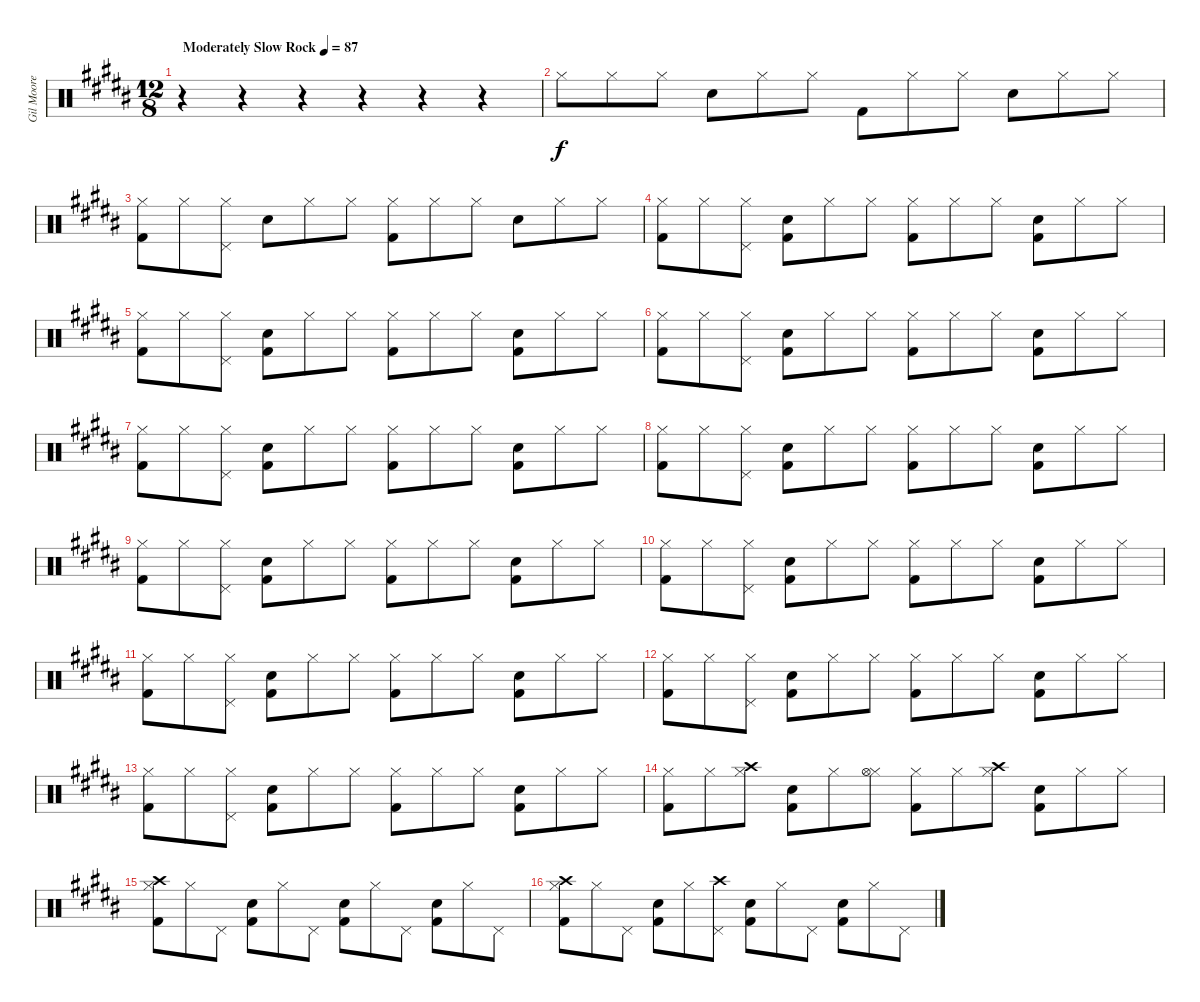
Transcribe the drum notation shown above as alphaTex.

\track ("Gil Moore" "Gil Moore") {instrument percussion}
\staff {score}
\articulation defaults
\ts (12 8)
\tempo (87 "Moderately Slow Rock")
\clef neutral
\ks b
r.4{dy f} r.4 r.4 r.4 r.4 r.4 |
"Hi-Hat (closed)".8{volume 13} "Hi-Hat (closed)".8 "Hi-Hat (closed)".8 "Snare (hit) 2".8 "Hi-Hat (closed)".8 "Hi-Hat (closed)".8 "Kick (hit) 2".8 "Hi-Hat (closed)".8 "Hi-Hat (closed)".8 "Snare (hit) 2".8 "Hi-Hat (closed)".8 "Hi-Hat (closed)".8 |
("Kick (hit) 2" "Hi-Hat (closed)").8 "Hi-Hat (closed)".8 ("Hi-Hat (closed)" "Pedal Hi-Hat (hit)").8 "Snare (hit) 2".8 "Hi-Hat (closed)".8 "Hi-Hat (closed)".8 ("Kick (hit) 2" "Hi-Hat (closed)").8 "Hi-Hat (closed)".8 "Hi-Hat (closed)".8 "Snare (hit) 2".8 "Hi-Hat (closed)".8 "Hi-Hat (closed)".8 |
("Kick (hit) 2" "Hi-Hat (closed)").8 "Hi-Hat (closed)".8 ("Hi-Hat (closed)" "Pedal Hi-Hat (hit)").8 ("Snare (hit) 2" "Kick (hit) 2").8 "Hi-Hat (closed)".8 "Hi-Hat (closed)".8 ("Kick (hit) 2" "Hi-Hat (closed)").8 "Hi-Hat (closed)".8 "Hi-Hat (closed)".8 ("Snare (hit) 2" "Kick (hit) 2").8 "Hi-Hat (closed)".8 "Hi-Hat (closed)".8 |
("Kick (hit) 2" "Hi-Hat (closed)").8 "Hi-Hat (closed)".8 ("Hi-Hat (closed)" "Pedal Hi-Hat (hit)").8 ("Snare (hit) 2" "Kick (hit) 2").8 "Hi-Hat (closed)".8 "Hi-Hat (closed)".8 ("Kick (hit) 2" "Hi-Hat (closed)").8 "Hi-Hat (closed)".8 "Hi-Hat (closed)".8 ("Snare (hit) 2" "Kick (hit) 2").8 "Hi-Hat (closed)".8 "Hi-Hat (closed)".8 |
("Kick (hit) 2" "Hi-Hat (closed)").8 "Hi-Hat (closed)".8 ("Hi-Hat (closed)" "Pedal Hi-Hat (hit)").8 ("Snare (hit) 2" "Kick (hit) 2").8 "Hi-Hat (closed)".8 "Hi-Hat (closed)".8 ("Kick (hit) 2" "Hi-Hat (closed)").8 "Hi-Hat (closed)".8 "Hi-Hat (closed)".8 ("Snare (hit) 2" "Kick (hit) 2").8 "Hi-Hat (closed)".8 "Hi-Hat (closed)".8 |
("Kick (hit) 2" "Hi-Hat (closed)").8 "Hi-Hat (closed)".8 ("Hi-Hat (closed)" "Pedal Hi-Hat (hit)").8 ("Snare (hit) 2" "Kick (hit) 2").8 "Hi-Hat (closed)".8 "Hi-Hat (closed)".8 ("Kick (hit) 2" "Hi-Hat (closed)").8 "Hi-Hat (closed)".8 "Hi-Hat (closed)".8 ("Snare (hit) 2" "Kick (hit) 2").8 "Hi-Hat (closed)".8 "Hi-Hat (closed)".8 |
("Kick (hit) 2" "Hi-Hat (closed)").8 "Hi-Hat (closed)".8 ("Hi-Hat (closed)" "Pedal Hi-Hat (hit)").8 ("Snare (hit) 2" "Kick (hit) 2").8 "Hi-Hat (closed)".8 "Hi-Hat (closed)".8 ("Kick (hit) 2" "Hi-Hat (closed)").8 "Hi-Hat (closed)".8 "Hi-Hat (closed)".8 ("Snare (hit) 2" "Kick (hit) 2").8 "Hi-Hat (closed)".8 "Hi-Hat (closed)".8 |
("Kick (hit) 2" "Hi-Hat (closed)").8 "Hi-Hat (closed)".8 ("Hi-Hat (closed)" "Pedal Hi-Hat (hit)").8 ("Snare (hit) 2" "Kick (hit) 2").8 "Hi-Hat (closed)".8 "Hi-Hat (closed)".8 ("Kick (hit) 2" "Hi-Hat (closed)").8 "Hi-Hat (closed)".8 "Hi-Hat (closed)".8 ("Snare (hit) 2" "Kick (hit) 2").8 "Hi-Hat (closed)".8 "Hi-Hat (closed)".8 |
("Kick (hit) 2" "Hi-Hat (closed)").8 "Hi-Hat (closed)".8 ("Hi-Hat (closed)" "Pedal Hi-Hat (hit)").8 ("Snare (hit) 2" "Kick (hit) 2").8 "Hi-Hat (closed)".8 "Hi-Hat (closed)".8 ("Kick (hit) 2" "Hi-Hat (closed)").8 "Hi-Hat (closed)".8 "Hi-Hat (closed)".8 ("Snare (hit) 2" "Kick (hit) 2").8 "Hi-Hat (closed)".8 "Hi-Hat (closed)".8 |
("Kick (hit) 2" "Hi-Hat (closed)").8 "Hi-Hat (closed)".8 ("Hi-Hat (closed)" "Pedal Hi-Hat (hit)").8 ("Snare (hit) 2" "Kick (hit) 2").8 "Hi-Hat (closed)".8 "Hi-Hat (closed)".8 ("Kick (hit) 2" "Hi-Hat (closed)").8 "Hi-Hat (closed)".8 "Hi-Hat (closed)".8 ("Snare (hit) 2" "Kick (hit) 2").8 "Hi-Hat (closed)".8 "Hi-Hat (closed)".8 |
("Kick (hit) 2" "Hi-Hat (closed)").8 "Hi-Hat (closed)".8 ("Hi-Hat (closed)" "Pedal Hi-Hat (hit)").8 ("Snare (hit) 2" "Kick (hit) 2").8 "Hi-Hat (closed)".8 "Hi-Hat (closed)".8 ("Kick (hit) 2" "Hi-Hat (closed)").8 "Hi-Hat (closed)".8 "Hi-Hat (closed)".8 ("Snare (hit) 2" "Kick (hit) 2").8 "Hi-Hat (closed)".8 "Hi-Hat (closed)".8 |
("Kick (hit) 2" "Hi-Hat (closed)").8 "Hi-Hat (closed)".8 ("Hi-Hat (closed)" "Pedal Hi-Hat (hit)").8 ("Snare (hit) 2" "Kick (hit) 2").8 "Hi-Hat (closed)".8 "Hi-Hat (closed)".8 ("Kick (hit) 2" "Hi-Hat (closed)").8 "Hi-Hat (closed)".8 "Hi-Hat (closed)".8 ("Snare (hit) 2" "Kick (hit) 2").8 "Hi-Hat (closed)".8 "Hi-Hat (closed)".8 |
("Kick (hit) 2" "Hi-Hat (closed)").8 "Hi-Hat (closed)".8 ("Hi-Hat (closed)" "Crash high (hit)").8 ("Snare (hit) 2" "Kick (hit) 2").8 "Hi-Hat (closed)".8 ("Hi-Hat (closed)" "Hi-Hat (open)").8 ("Kick (hit) 2" "Hi-Hat (closed)").8 "Hi-Hat (closed)".8 ("Hi-Hat (closed)" "Crash high (hit)").8 ("Snare (hit) 2" "Kick (hit) 2").8 "Hi-Hat (closed)".8 "Hi-Hat (closed)".8 |
("Kick (hit) 2" "Hi-Hat (closed)" "Crash high (hit)").8 "Hi-Hat (closed)".8 "Pedal Hi-Hat (hit)".8 ("Snare (hit) 2" "Kick (hit) 2").8 "Hi-Hat (closed)".8 "Pedal Hi-Hat (hit)".8 ("Snare (hit) 2" "Kick (hit) 2").8 "Hi-Hat (closed)".8 "Pedal Hi-Hat (hit)".8 ("Snare (hit) 2" "Kick (hit) 2").8 "Hi-Hat (closed)".8 "Pedal Hi-Hat (hit)".8 |
("Kick (hit) 2" "Hi-Hat (closed)" "Crash high (hit)").8 "Hi-Hat (closed)".8 "Pedal Hi-Hat (hit)".8 ("Snare (hit) 2" "Kick (hit) 2").8 "Hi-Hat (closed)".8 ("Pedal Hi-Hat (hit)" "Crash high (hit)").8 ("Snare (hit) 2" "Kick (hit) 2").8 "Hi-Hat (closed)".8 "Pedal Hi-Hat (hit)".8 ("Snare (hit) 2" "Kick (hit) 2").8 "Hi-Hat (closed)".8 "Pedal Hi-Hat (hit)".8
